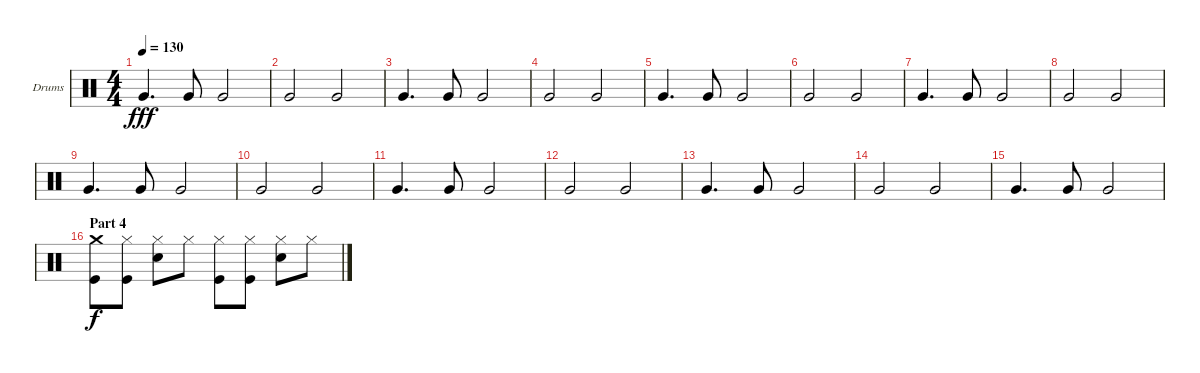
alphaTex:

\defaultSystemsLayout 4
\bracketExtendMode groupsimilarinstruments
\firstSystemTrackNameOrientation horizontal
\otherSystemsTrackNameOrientation horizontal
\track ("Drumkit" "Drums") {instrument percussion}
\staff {score}
\articulation defaults
\ts (4 4)
\tempo 130
\clef neutral
\ks aminor "Very Low Tom (hit)".4{d dy fff} "Very Low Tom (hit)".8 "Very Low Tom (hit)".2
|
"Very Low Tom (hit)".2 "Very Low Tom (hit)".2 |
"Very Low Tom (hit)".4{d} "Very Low Tom (hit)".8 "Very Low Tom (hit)".2 |
"Very Low Tom (hit)".2 "Very Low Tom (hit)".2 |
"Very Low Tom (hit)".4{d} "Very Low Tom (hit)".8 "Very Low Tom (hit)".2 |
"Very Low Tom (hit)".2 "Very Low Tom (hit)".2 |
"Very Low Tom (hit)".4{d} "Very Low Tom (hit)".8 "Very Low Tom (hit)".2 |
"Very Low Tom (hit)".2 "Very Low Tom (hit)".2 |
"Very Low Tom (hit)".4{d} "Very Low Tom (hit)".8 "Very Low Tom (hit)".2 |
"Very Low Tom (hit)".2 "Very Low Tom (hit)".2 |
"Very Low Tom (hit)".4{d} "Very Low Tom (hit)".8 "Very Low Tom (hit)".2 |
"Very Low Tom (hit)".2 "Very Low Tom (hit)".2 |
"Very Low Tom (hit)".4{d} "Very Low Tom (hit)".8 "Very Low Tom (hit)".2 |
"Very Low Tom (hit)".2 "Very Low Tom (hit)".2 |
"Very Low Tom (hit)".4{d} "Very Low Tom (hit)".8 "Very Low Tom (hit)".2 |
\section ("" "Part 4")
("Kick (hit)" "Crash medium (hit)").8{dy f} ("Kick (hit)" "Hi-Hat (closed)").8 ("Snare (hit) 2" "Hi-Hat (closed)").8 "Hi-Hat (closed)".8 ("Kick (hit)" "Hi-Hat (closed)").8 ("Kick (hit)" "Hi-Hat (closed)").8 ("Snare (hit) 2" "Hi-Hat (closed)").8 "Hi-Hat (closed)".8
